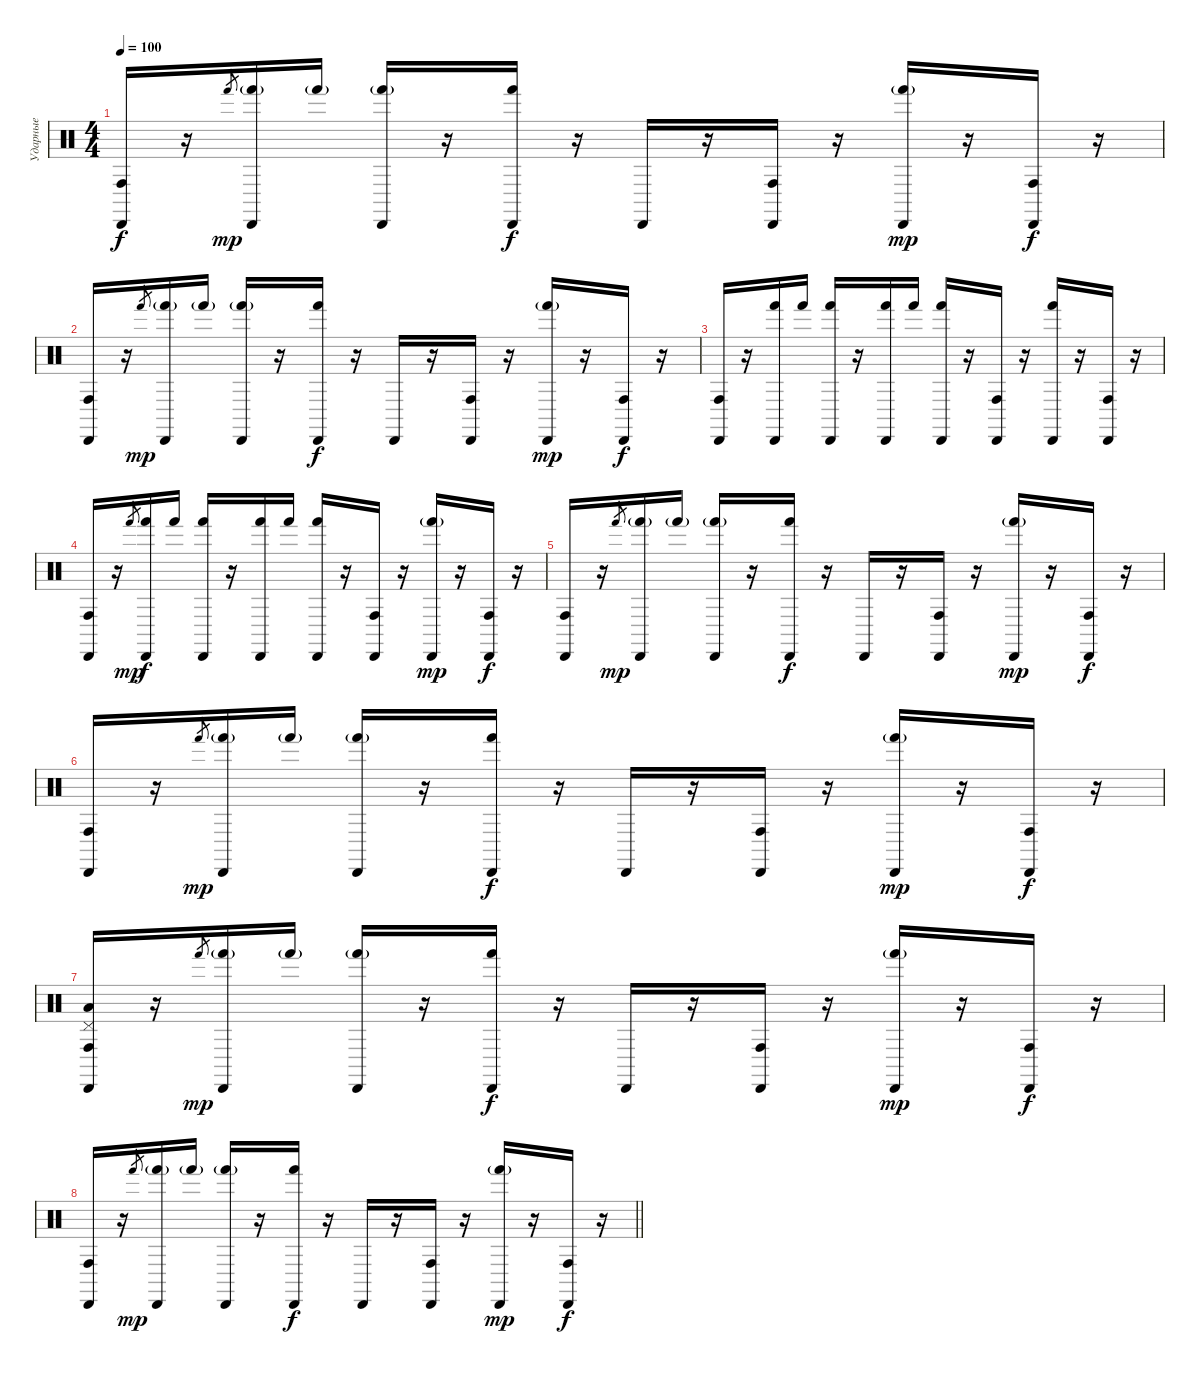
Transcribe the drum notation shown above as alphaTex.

\track ("Ударные" "Ударные") {instrument percussion}
\staff {score}
\articulation defaults
\ts (4 4)
\tempo 100
\clef neutral
\ks c
("Conga high (hit)" "Cabasa (hit)").16{dy f} r.16 "Hand (hit)".8{gr dy mp} ("Hand (hit)"{g} "Cabasa (hit)").16 "Hand (hit)"{g}.16 ("Hand (hit)"{g} "Cabasa (hit)").16 r.16 ("Hand (hit)" "Cabasa (hit)").16{dy f} r.16 "Cabasa (hit)".16 r.16 ("Conga high (hit)" "Cabasa (hit)").16 r.16 ("Hand (hit)"{g} "Cabasa (hit)").16{dy mp} r.16 ("Conga high (hit)" "Cabasa (hit)").16{dy f} r.16 |
("Conga high (hit)" "Cabasa (hit)").16 r.16 "Hand (hit)".8{gr dy mp} ("Hand (hit)"{g} "Cabasa (hit)").16 "Hand (hit)"{g}.16 ("Hand (hit)"{g} "Cabasa (hit)").16 r.16 ("Hand (hit)" "Cabasa (hit)").16{dy f} r.16 "Cabasa (hit)".16 r.16 ("Conga high (hit)" "Cabasa (hit)").16 r.16 ("Hand (hit)"{g} "Cabasa (hit)").16{dy mp} r.16 ("Conga high (hit)" "Cabasa (hit)").16{dy f} r.16 |
("Conga high (hit)" "Cabasa (hit)").16 r.16 ("Hand (hit)" "Cabasa (hit)").16 "Hand (hit)".16 ("Hand (hit)" "Cabasa (hit)").16 r.16 ("Hand (hit)" "Cabasa (hit)").16 "Hand (hit)".16 ("Hand (hit)" "Cabasa (hit)").16 r.16 ("Conga high (hit)" "Cabasa (hit)").16 r.16 ("Hand (hit)" "Cabasa (hit)").16 r.16 ("Conga high (hit)" "Cabasa (hit)").16 r.16 |
("Conga high (hit)" "Cabasa (hit)").16 r.16 "Hand (hit)".8{gr dy mp} ("Hand (hit)" "Cabasa (hit)").16{dy f} "Hand (hit)".16 ("Hand (hit)" "Cabasa (hit)").16 r.16 ("Hand (hit)" "Cabasa (hit)").16 "Hand (hit)".16 ("Hand (hit)" "Cabasa (hit)").16 r.16 ("Conga high (hit)" "Cabasa (hit)").16 r.16 ("Hand (hit)"{g} "Cabasa (hit)").16{dy mp} r.16 ("Conga high (hit)" "Cabasa (hit)").16{dy f} r.16 |
("Conga high (hit)" "Cabasa (hit)").16 r.16 "Hand (hit)".8{gr dy mp} ("Hand (hit)"{g} "Cabasa (hit)").16 "Hand (hit)"{g}.16 ("Hand (hit)"{g} "Cabasa (hit)").16 r.16 ("Hand (hit)" "Cabasa (hit)").16{dy f} r.16 "Cabasa (hit)".16 r.16 ("Conga high (hit)" "Cabasa (hit)").16 r.16 ("Hand (hit)"{g} "Cabasa (hit)").16{dy mp} r.16 ("Conga high (hit)" "Cabasa (hit)").16{dy f} r.16 |
("Conga high (hit)" "Cabasa (hit)").16 r.16 "Hand (hit)".8{gr dy mp} ("Hand (hit)"{g} "Cabasa (hit)").16 "Hand (hit)"{g}.16 ("Hand (hit)"{g} "Cabasa (hit)").16 r.16 ("Hand (hit)" "Cabasa (hit)").16{dy f} r.16 "Cabasa (hit)".16 r.16 ("Conga high (hit)" "Cabasa (hit)").16 r.16 ("Hand (hit)"{g} "Cabasa (hit)").16{dy mp} r.16 ("Conga high (hit)" "Cabasa (hit)").16{dy f} r.16 |
("Low Tom (hit)" "Pedal Hi-Hat (hit)" "Conga high (hit)" "Cabasa (hit)").16 r.16 "Hand (hit)".8{gr dy mp} ("Hand (hit)"{g} "Cabasa (hit)").16 "Hand (hit)"{g}.16 ("Hand (hit)"{g} "Cabasa (hit)").16 r.16 ("Hand (hit)" "Cabasa (hit)").16{dy f} r.16 "Cabasa (hit)".16 r.16 ("Conga high (hit)" "Cabasa (hit)").16 r.16 ("Hand (hit)"{g} "Cabasa (hit)").16{dy mp} r.16 ("Conga high (hit)" "Cabasa (hit)").16{dy f} r.16 |
\barLineRight lightlight
("Conga high (hit)" "Cabasa (hit)").16 r.16 "Hand (hit)".8{gr dy mp} ("Hand (hit)"{g} "Cabasa (hit)").16 "Hand (hit)"{g}.16 ("Hand (hit)"{g} "Cabasa (hit)").16 r.16 ("Hand (hit)" "Cabasa (hit)").16{dy f} r.16 "Cabasa (hit)".16 r.16 ("Conga high (hit)" "Cabasa (hit)").16 r.16 ("Hand (hit)"{g} "Cabasa (hit)").16{dy mp} r.16 ("Conga high (hit)" "Cabasa (hit)").16{dy f} r.16
